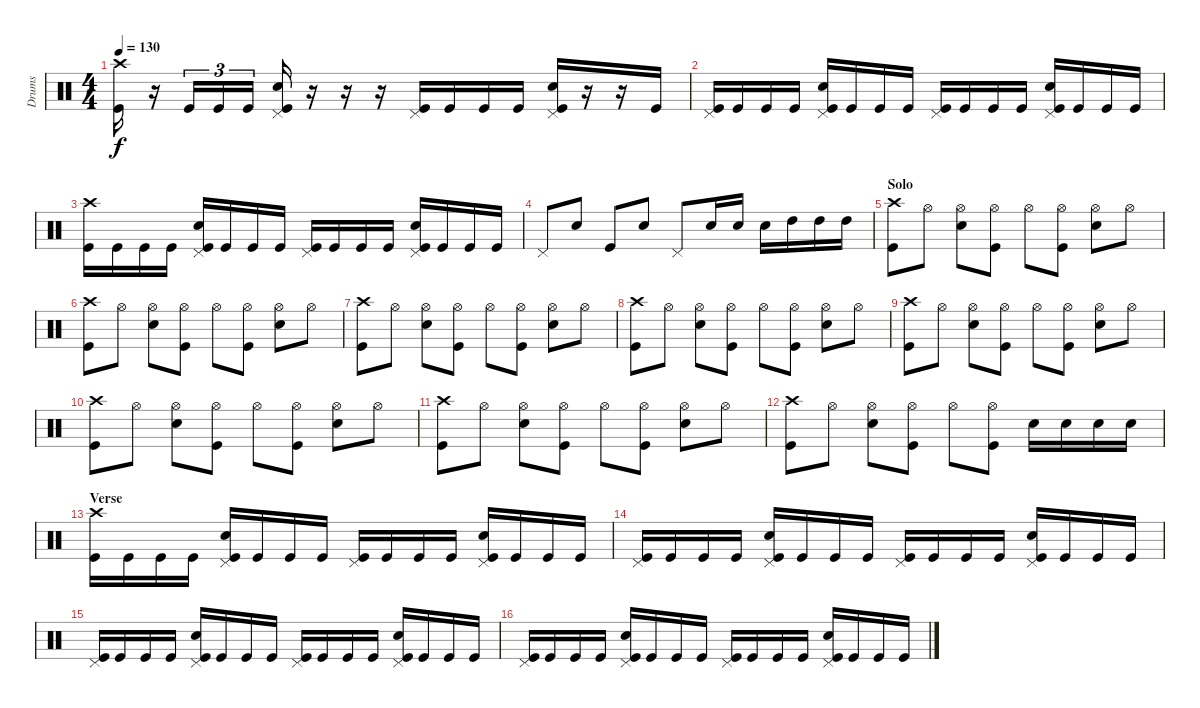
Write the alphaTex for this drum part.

\track ("Drums" "Drums") {instrument percussion}
\staff {score}
\articulation defaults
\ts (4 4)
\tempo 130
\clef neutral
\ks c
("Crash high (hit)" "Kick (hit)").16{dy f} r.16 "Kick (hit)".16{tu (3 2)} "Kick (hit)".16{tu (3 2)} "Kick (hit)".16{tu (3 2)} ("Pedal Hi-Hat (hit)" "Snare (hit) 2" "Kick (hit)").16 r.16 r.16 r.16 ("Pedal Hi-Hat (hit)" "Kick (hit)").16 "Kick (hit)".16 "Kick (hit)".16 "Kick (hit)".16 ("Pedal Hi-Hat (hit)" "Snare (hit) 2" "Kick (hit)").16 r.16 r.16 "Kick (hit)".16 |
("Pedal Hi-Hat (hit)" "Kick (hit)").16 "Kick (hit)".16 "Kick (hit)".16 "Kick (hit)".16 ("Pedal Hi-Hat (hit)" "Snare (hit) 2" "Kick (hit)").16 "Kick (hit)".16 "Kick (hit)".16 "Kick (hit)".16 ("Pedal Hi-Hat (hit)" "Kick (hit)").16 "Kick (hit)".16 "Kick (hit)".16 "Kick (hit)".16 ("Pedal Hi-Hat (hit)" "Snare (hit) 2" "Kick (hit)").16 "Kick (hit)".16 "Kick (hit)".16 "Kick (hit)".16 |
("Crash high (hit)" "Kick (hit)").16 "Kick (hit)".16 "Kick (hit)".16 "Kick (hit)".16 ("Pedal Hi-Hat (hit)" "Snare (hit) 2" "Kick (hit)").16 "Kick (hit)".16 "Kick (hit)".16 "Kick (hit)".16 ("Pedal Hi-Hat (hit)" "Kick (hit)").16 "Kick (hit)".16 "Kick (hit)".16 "Kick (hit)".16 ("Pedal Hi-Hat (hit)" "Snare (hit) 2" "Kick (hit)").16 "Kick (hit)".16 "Kick (hit)".16 "Kick (hit)".16 |
"Pedal Hi-Hat (hit)".8 "Snare (hit) 2".8 "Kick (hit)".8 "Snare (hit) 2".8 "Pedal Hi-Hat (hit)".8 "Snare (hit) 2".16 "Snare (hit) 2".16 "Snare (hit) 2".16 "High Tom (hit)".16 "High Tom (hit)".16 "High Tom (hit)".16 |
\section ("" "Solo")
("Crash high (hit)" "Kick (hit)").8 "Hi-Hat (open)".8 ("Hi-Hat (open)" "Snare (hit) 2").8 ("Hi-Hat (open)" "Kick (hit)").8 "Hi-Hat (open)".8 ("Hi-Hat (open)" "Kick (hit)").8 ("Hi-Hat (open)" "Snare (hit) 2").8 "Hi-Hat (open)".8 |
("Crash high (hit)" "Kick (hit)").8 "Hi-Hat (open)".8 ("Hi-Hat (open)" "Snare (hit) 2").8 ("Hi-Hat (open)" "Kick (hit)").8 "Hi-Hat (open)".8 ("Hi-Hat (open)" "Kick (hit)").8 ("Hi-Hat (open)" "Snare (hit) 2").8 "Hi-Hat (open)".8 |
("Crash high (hit)" "Kick (hit)").8 "Hi-Hat (open)".8 ("Hi-Hat (open)" "Snare (hit) 2").8 ("Hi-Hat (open)" "Kick (hit)").8 "Hi-Hat (open)".8 ("Hi-Hat (open)" "Kick (hit)").8 ("Hi-Hat (open)" "Snare (hit) 2").8 "Hi-Hat (open)".8 |
("Crash high (hit)" "Kick (hit)").8 "Hi-Hat (open)".8 ("Hi-Hat (open)" "Snare (hit) 2").8 ("Hi-Hat (open)" "Kick (hit)").8 "Hi-Hat (open)".8 ("Hi-Hat (open)" "Kick (hit)").8 ("Hi-Hat (open)" "Snare (hit) 2").8 "Hi-Hat (open)".8 |
("Crash high (hit)" "Kick (hit)").8 "Hi-Hat (open)".8 ("Hi-Hat (open)" "Snare (hit) 2").8 ("Hi-Hat (open)" "Kick (hit)").8 "Hi-Hat (open)".8 ("Hi-Hat (open)" "Kick (hit)").8 ("Hi-Hat (open)" "Snare (hit) 2").8 "Hi-Hat (open)".8 |
("Crash high (hit)" "Kick (hit)").8 "Hi-Hat (open)".8 ("Hi-Hat (open)" "Snare (hit) 2").8 ("Hi-Hat (open)" "Kick (hit)").8 "Hi-Hat (open)".8 ("Hi-Hat (open)" "Kick (hit)").8 ("Hi-Hat (open)" "Snare (hit) 2").8 "Hi-Hat (open)".8 |
("Crash high (hit)" "Kick (hit)").8 "Hi-Hat (open)".8 ("Hi-Hat (open)" "Snare (hit) 2").8 ("Hi-Hat (open)" "Kick (hit)").8 "Hi-Hat (open)".8 ("Hi-Hat (open)" "Kick (hit)").8 ("Hi-Hat (open)" "Snare (hit) 2").8 "Hi-Hat (open)".8 |
("Crash high (hit)" "Kick (hit)").8 "Hi-Hat (open)".8 ("Hi-Hat (open)" "Snare (hit) 2").8 ("Hi-Hat (open)" "Kick (hit)").8 "Hi-Hat (open)".8 ("Hi-Hat (open)" "Kick (hit)").8 "Snare (hit) 2".16 "Snare (hit) 2".16 "Snare (hit) 2".16 "Snare (hit) 2".16 |
\section ("" "Verse")
("Crash high (hit)" "Kick (hit)").16 "Kick (hit)".16 "Kick (hit)".16 "Kick (hit)".16 ("Pedal Hi-Hat (hit)" "Snare (hit) 2" "Kick (hit)").16 "Kick (hit)".16 "Kick (hit)".16 "Kick (hit)".16 ("Pedal Hi-Hat (hit)" "Kick (hit)").16 "Kick (hit)".16 "Kick (hit)".16 "Kick (hit)".16 ("Pedal Hi-Hat (hit)" "Snare (hit) 2" "Kick (hit)").16 "Kick (hit)".16 "Kick (hit)".16 "Kick (hit)".16 |
("Pedal Hi-Hat (hit)" "Kick (hit)").16 "Kick (hit)".16 "Kick (hit)".16 "Kick (hit)".16 ("Pedal Hi-Hat (hit)" "Snare (hit) 2" "Kick (hit)").16 "Kick (hit)".16 "Kick (hit)".16 "Kick (hit)".16 ("Pedal Hi-Hat (hit)" "Kick (hit)").16 "Kick (hit)".16 "Kick (hit)".16 "Kick (hit)".16 ("Pedal Hi-Hat (hit)" "Snare (hit) 2" "Kick (hit)").16 "Kick (hit)".16 "Kick (hit)".16 "Kick (hit)".16 |
("Pedal Hi-Hat (hit)" "Kick (hit)").16 "Kick (hit)".16 "Kick (hit)".16 "Kick (hit)".16 ("Pedal Hi-Hat (hit)" "Snare (hit) 2" "Kick (hit)").16 "Kick (hit)".16 "Kick (hit)".16 "Kick (hit)".16 ("Pedal Hi-Hat (hit)" "Kick (hit)").16 "Kick (hit)".16 "Kick (hit)".16 "Kick (hit)".16 ("Pedal Hi-Hat (hit)" "Snare (hit) 2" "Kick (hit)").16 "Kick (hit)".16 "Kick (hit)".16 "Kick (hit)".16 |
("Pedal Hi-Hat (hit)" "Kick (hit)").16 "Kick (hit)".16 "Kick (hit)".16 "Kick (hit)".16 ("Pedal Hi-Hat (hit)" "Snare (hit) 2" "Kick (hit)").16 "Kick (hit)".16 "Kick (hit)".16 "Kick (hit)".16 ("Pedal Hi-Hat (hit)" "Kick (hit)").16 "Kick (hit)".16 "Kick (hit)".16 "Kick (hit)".16 ("Pedal Hi-Hat (hit)" "Snare (hit) 2" "Kick (hit)").16 "Kick (hit)".16 "Kick (hit)".16 "Kick (hit)".16
